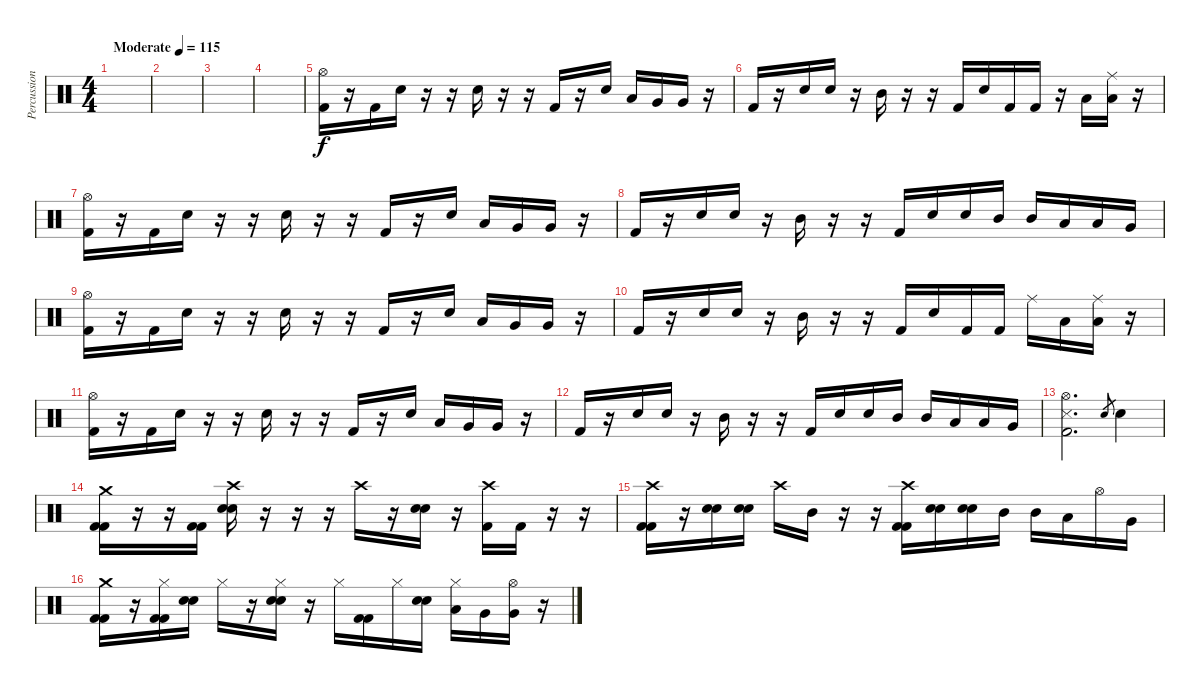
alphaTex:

\track ("Percussion" "Percussion") {instrument percussion}
\staff {score}
\articulation defaults
\ts (4 4)
\tempo (115 "Moderate")
\clef neutral
\ks c
|
|
|
|
("Hi-Hat (open)" "Kick (hit) 2").16 r.16 "Kick (hit) 2".16 "Electric Snare (hit)".16 r.16 r.16 "Electric Snare (hit)".16 r.16 r.16 "Kick (hit) 2".16 r.16 "Electric Snare (hit)".16 "Low Tom (hit)".16 "Very Low Tom (hit)".16 "Very Low Tom (hit)".16 r.16 |
"Kick (hit) 2".16 r.16 "Electric Snare (hit)".16 "Electric Snare (hit)".16 r.16 "Mid Tom (hit)".16 r.16 r.16 "Kick (hit) 2".16 "Electric Snare (hit)".16 "Kick (hit) 2".16 "Kick (hit) 2".16 r.16 "Low Floor Tom (hit)".16 ("Ride (middle)" "Low Floor Tom (hit)").16 r.16 |
("Hi-Hat (open)" "Kick (hit) 2").16 r.16 "Kick (hit) 2".16 "Electric Snare (hit)".16 r.16 r.16 "Electric Snare (hit)".16 r.16 r.16 "Kick (hit) 2".16 r.16 "Electric Snare (hit)".16 "Low Tom (hit)".16 "Very Low Tom (hit)".16 "Very Low Tom (hit)".16 r.16 |
"Kick (hit) 2".16 r.16 "Electric Snare (hit)".16 "Electric Snare (hit)".16 r.16 "Mid Tom (hit)".16 r.16 r.16 "Kick (hit) 2".16 "Electric Snare (hit)".16 "Electric Snare (hit)".16 "Mid Tom (hit)".16 "Mid Tom (hit)".16 "Low Tom (hit)".16 "Low Tom (hit)".16 "Very Low Tom (hit)".16 |
("Hi-Hat (open)" "Kick (hit) 2").16 r.16 "Kick (hit) 2".16 "Electric Snare (hit)".16 r.16 r.16 "Electric Snare (hit)".16 r.16 r.16 "Kick (hit) 2".16 r.16 "Electric Snare (hit)".16 "Low Tom (hit)".16 "Very Low Tom (hit)".16 "Very Low Tom (hit)".16 r.16 |
"Kick (hit) 2".16 r.16 "Electric Snare (hit)".16 "Electric Snare (hit)".16 r.16 "Mid Tom (hit)".16 r.16 r.16 "Kick (hit) 2".16 "Electric Snare (hit)".16 "Kick (hit) 2".16 "Kick (hit) 2".16 "Ride (middle)".16 "Low Floor Tom (hit)".16 ("Ride (middle)" "Low Floor Tom (hit)").16 r.16 |
("Hi-Hat (open)" "Kick (hit) 2").16 r.16 "Kick (hit) 2".16 "Electric Snare (hit)".16 r.16 r.16 "Electric Snare (hit)".16 r.16 r.16 "Kick (hit) 2".16 r.16 "Electric Snare (hit)".16 "Low Tom (hit)".16 "Very Low Tom (hit)".16 "Very Low Tom (hit)".16 r.16 |
"Kick (hit) 2".16 r.16 "Electric Snare (hit)".16 "Electric Snare (hit)".16 r.16 "Mid Tom (hit)".16 r.16 r.16 "Kick (hit) 2".16 "Electric Snare (hit)".16 "Electric Snare (hit)".16 "Mid Tom (hit)".16 "Mid Tom (hit)".16 "Low Tom (hit)".16 "Low Tom (hit)".16 "Very Low Tom (hit)".16 |
("Hi-Hat (open)" "Snare (side stick) 3" "Kick (hit) 2").2{d} "Electric Snare (hit)".8{gr} "Electric Snare (hit)".4 |
("Crash medium (hit)" "Kick (hit) 2" "Kick (hit) 2").16 r.16 r.16 ("Kick (hit) 2" "Kick (hit) 2").16 ("Crash high (hit)" "Electric Snare (hit)" "Electric Snare (hit)").16 r.16 r.16 r.16 "Crash high (hit)".16 r.16 ("Electric Snare (hit)" "Electric Snare (hit)").16 r.16 ("Crash high (hit)" "Kick (hit) 2").16 "Kick (hit) 2".16 r.16 r.16 |
("Crash high (hit)" "Kick (hit) 2" "Kick (hit) 2").16 r.16 ("Electric Snare (hit)" "Electric Snare (hit)").16 ("Electric Snare (hit)" "Electric Snare (hit)").16 "Crash high (hit)".16 "Mid Tom (hit)".16 r.16 r.16 ("Crash high (hit)" "Kick (hit) 2" "Kick (hit) 2").16 ("Electric Snare (hit)" "Electric Snare (hit)").16 ("Electric Snare (hit)" "Electric Snare (hit)").16 "Mid Tom (hit)".16 "Mid Tom (hit)".16 "Low Tom (hit)".16 "Hi-Hat (open)".16 "Very Low Tom (hit)".16 |
("Crash medium (hit)" "Kick (hit) 2" "Kick (hit) 2").16 r.16 ("Hi-Hat (closed)" "Kick (hit) 2" "Kick (hit) 2").16 ("Electric Snare (hit)" "Electric Snare (hit)").16 "Hi-Hat (closed)".16 r.16 ("Hi-Hat (closed)" "Electric Snare (hit)" "Electric Snare (hit)").16 r.16 "Hi-Hat (closed)".16 ("Kick (hit) 2" "Kick (hit) 2").16 "Hi-Hat (closed)".16 ("Electric Snare (hit)" "Electric Snare (hit)").16 ("Hi-Hat (closed)" "Low Tom (hit)").16 "Very Low Tom (hit)".16 ("Hi-Hat (open)" "Very Low Tom (hit)").16 r.16
